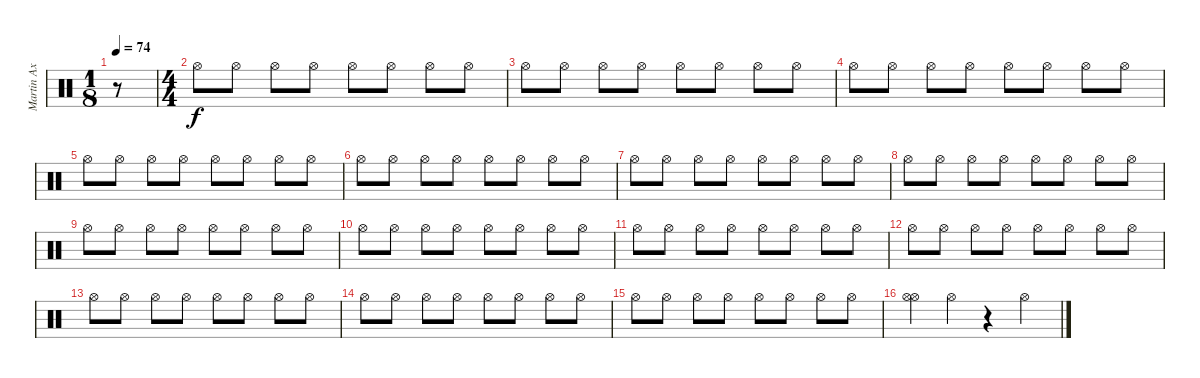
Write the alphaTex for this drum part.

\track (" Martin Axenrot - Cymbals" " Martin Ax") {instrument percussion}
\staff {score}
\articulation defaults
\ts (1 8)
\tempo 74
\clef neutral
\ks c
r.8{dy f} |
\ts (4 4)
"Hi-Hat (open)".8 "Hi-Hat (open)".8 "Hi-Hat (open)".8 "Hi-Hat (open)".8 "Hi-Hat (open)".8 "Hi-Hat (open)".8 "Hi-Hat (open)".8 "Hi-Hat (open)".8 |
"Hi-Hat (open)".8 "Hi-Hat (open)".8 "Hi-Hat (open)".8 "Hi-Hat (open)".8 "Hi-Hat (open)".8 "Hi-Hat (open)".8 "Hi-Hat (open)".8 "Hi-Hat (open)".8 |
"Hi-Hat (open)".8 "Hi-Hat (open)".8 "Hi-Hat (open)".8 "Hi-Hat (open)".8 "Hi-Hat (open)".8 "Hi-Hat (open)".8 "Hi-Hat (open)".8 "Hi-Hat (open)".8 |
"Hi-Hat (open)".8 "Hi-Hat (open)".8 "Hi-Hat (open)".8 "Hi-Hat (open)".8 "Hi-Hat (open)".8 "Hi-Hat (open)".8 "Hi-Hat (open)".8 "Hi-Hat (open)".8 |
"Hi-Hat (open)".8 "Hi-Hat (open)".8 "Hi-Hat (open)".8 "Hi-Hat (open)".8 "Hi-Hat (open)".8 "Hi-Hat (open)".8 "Hi-Hat (open)".8 "Hi-Hat (open)".8 |
"Hi-Hat (open)".8 "Hi-Hat (open)".8 "Hi-Hat (open)".8 "Hi-Hat (open)".8 "Hi-Hat (open)".8 "Hi-Hat (open)".8 "Hi-Hat (open)".8 "Hi-Hat (open)".8 |
"Hi-Hat (open)".8 "Hi-Hat (open)".8 "Hi-Hat (open)".8 "Hi-Hat (open)".8 "Hi-Hat (open)".8 "Hi-Hat (open)".8 "Hi-Hat (open)".8 "Hi-Hat (open)".8 |
"Hi-Hat (open)".8 "Hi-Hat (open)".8 "Hi-Hat (open)".8 "Hi-Hat (open)".8 "Hi-Hat (open)".8 "Hi-Hat (open)".8 "Hi-Hat (open)".8 "Hi-Hat (open)".8 |
"Hi-Hat (open)".8 "Hi-Hat (open)".8 "Hi-Hat (open)".8 "Hi-Hat (open)".8 "Hi-Hat (open)".8 "Hi-Hat (open)".8 "Hi-Hat (open)".8 "Hi-Hat (open)".8 |
"Hi-Hat (open)".8 "Hi-Hat (open)".8 "Hi-Hat (open)".8 "Hi-Hat (open)".8 "Hi-Hat (open)".8 "Hi-Hat (open)".8 "Hi-Hat (open)".8 "Hi-Hat (open)".8 |
"Hi-Hat (open)".8 "Hi-Hat (open)".8 "Hi-Hat (open)".8 "Hi-Hat (open)".8 "Hi-Hat (open)".8 "Hi-Hat (open)".8 "Hi-Hat (open)".8 "Hi-Hat (open)".8 |
"Hi-Hat (open)".8 "Hi-Hat (open)".8 "Hi-Hat (open)".8 "Hi-Hat (open)".8 "Hi-Hat (open)".8 "Hi-Hat (open)".8 "Hi-Hat (open)".8 "Hi-Hat (open)".8 |
"Hi-Hat (open)".8 "Hi-Hat (open)".8 "Hi-Hat (open)".8 "Hi-Hat (open)".8 "Hi-Hat (open)".8 "Hi-Hat (open)".8 "Hi-Hat (open)".8 "Hi-Hat (open)".8 |
"Hi-Hat (open)".8 "Hi-Hat (open)".8 "Hi-Hat (open)".8 "Hi-Hat (open)".8 "Hi-Hat (open)".8 "Hi-Hat (open)".8 "Hi-Hat (open)".8 "Hi-Hat (open)".8 |
("Hi-Hat (open)" "Hi-Hat (open)").4 "Hi-Hat (open)".4 r.4 "Hi-Hat (open)".4
